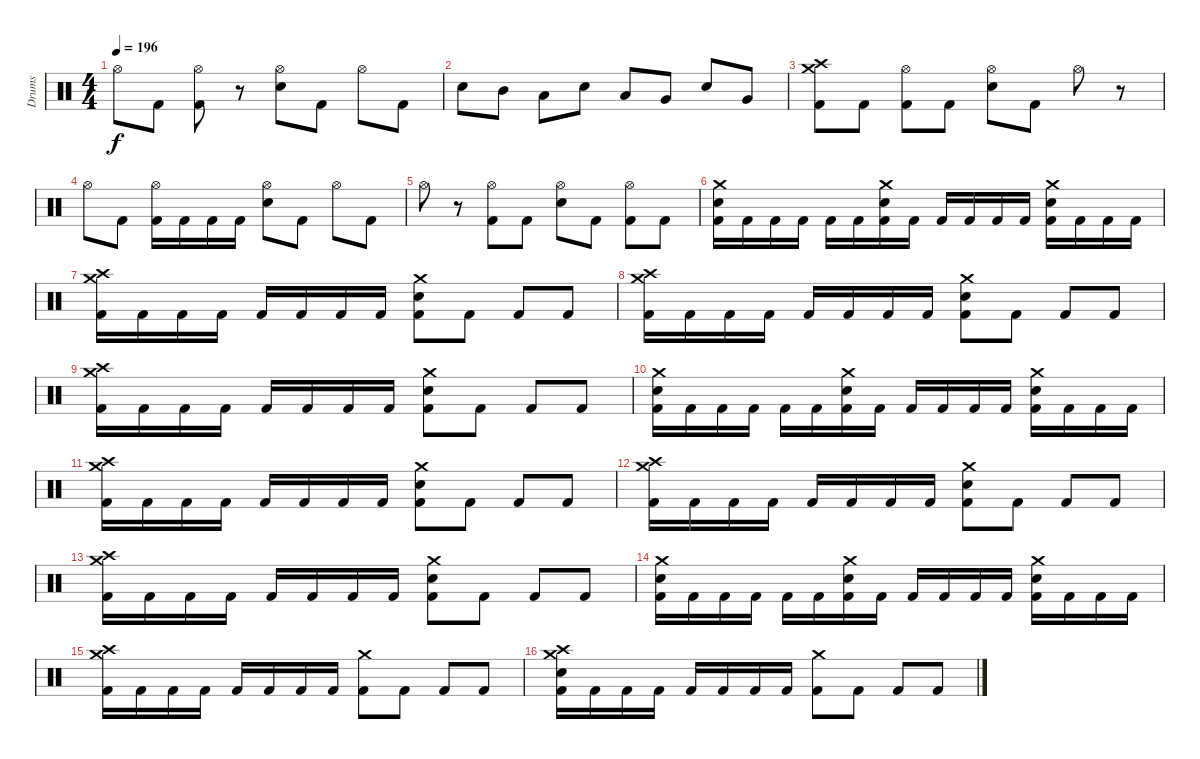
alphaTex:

\track ("Drums" "Drums") {instrument percussion}
\staff {score}
\articulation defaults
\ts (4 4)
\tempo 196
\clef neutral
\ks c "Hi-Hat (open)".8{dy f} "Kick (hit) 2".8
("Hi-Hat (open)" "Kick (hit) 2").8 r.8 ("Hi-Hat (open)" "Snare (hit) 2").8 "Kick (hit) 2".8 "Hi-Hat (open)".8 "Kick (hit) 2".8 |
"Snare (hit) 2".8 "Mid Tom (hit)".8 "Low Tom (hit)".8 "Snare (hit) 2".8 "Low Tom (hit)".8 "Very Low Tom (hit)".8 "Snare (hit) 2".8 "Very Low Tom (hit)".8 |
("Crash high (hit)" "Crash medium (hit)" "Kick (hit) 2").8 "Kick (hit) 2".8 ("Hi-Hat (open)" "Kick (hit) 2").8 "Kick (hit) 2".8 ("Hi-Hat (open)" "Snare (hit) 2").8 "Kick (hit) 2".8 "Hi-Hat (open)".8 r.8 |
"Hi-Hat (open)".8 "Kick (hit) 2".8 ("Hi-Hat (open)" "Kick (hit) 2").16 "Kick (hit) 2".16 "Kick (hit) 2".16 "Kick (hit) 2".16 ("Hi-Hat (open)" "Snare (hit) 2").8 "Kick (hit) 2".8 "Hi-Hat (open)".8 "Kick (hit) 2".8 |
"Hi-Hat (open)".8 r.8 ("Hi-Hat (open)" "Kick (hit) 2").8 "Kick (hit) 2".8 ("Hi-Hat (open)" "Snare (hit) 2").8 "Kick (hit) 2".8 ("Hi-Hat (open)" "Kick (hit) 2").8 "Kick (hit) 2".8 |
("Crash medium (hit)" "Snare (hit) 2" "Kick (hit) 2").16 "Kick (hit) 2".16 "Kick (hit) 2".16 "Kick (hit) 2".16 "Kick (hit) 2".16 "Kick (hit) 2".16 ("Crash medium (hit)" "Snare (hit) 2" "Kick (hit) 2").16 "Kick (hit) 2".16 "Kick (hit) 2".16 "Kick (hit) 2".16 "Kick (hit) 2".16 "Kick (hit) 2".16 ("Crash medium (hit)" "Snare (hit) 2" "Kick (hit) 2").16 "Kick (hit) 2".16 "Kick (hit) 2".16 "Kick (hit) 2".16 |
("Crash high (hit)" "Crash medium (hit)" "Kick (hit) 2").16 "Kick (hit) 2".16 "Kick (hit) 2".16 "Kick (hit) 2".16 "Kick (hit) 2".16 "Kick (hit) 2".16 "Kick (hit) 2".16 "Kick (hit) 2".16 ("Crash medium (hit)" "Snare (hit) 2" "Kick (hit) 2").8 "Kick (hit) 2".8 "Kick (hit) 2".8 "Kick (hit) 2".8 |
("Crash high (hit)" "Crash medium (hit)" "Kick (hit) 2").16 "Kick (hit) 2".16 "Kick (hit) 2".16 "Kick (hit) 2".16 "Kick (hit) 2".16 "Kick (hit) 2".16 "Kick (hit) 2".16 "Kick (hit) 2".16 ("Crash medium (hit)" "Snare (hit) 2" "Kick (hit) 2").8 "Kick (hit) 2".8 "Kick (hit) 2".8 "Kick (hit) 2".8 |
("Crash high (hit)" "Crash medium (hit)" "Kick (hit) 2").16 "Kick (hit) 2".16 "Kick (hit) 2".16 "Kick (hit) 2".16 "Kick (hit) 2".16 "Kick (hit) 2".16 "Kick (hit) 2".16 "Kick (hit) 2".16 ("Crash medium (hit)" "Snare (hit) 2" "Kick (hit) 2").8 "Kick (hit) 2".8 "Kick (hit) 2".8 "Kick (hit) 2".8 |
("Crash medium (hit)" "Snare (hit) 2" "Kick (hit) 2").16 "Kick (hit) 2".16 "Kick (hit) 2".16 "Kick (hit) 2".16 "Kick (hit) 2".16 "Kick (hit) 2".16 ("Crash medium (hit)" "Snare (hit) 2" "Kick (hit) 2").16 "Kick (hit) 2".16 "Kick (hit) 2".16 "Kick (hit) 2".16 "Kick (hit) 2".16 "Kick (hit) 2".16 ("Crash medium (hit)" "Snare (hit) 2" "Kick (hit) 2").16 "Kick (hit) 2".16 "Kick (hit) 2".16 "Kick (hit) 2".16 |
("Crash high (hit)" "Crash medium (hit)" "Kick (hit) 2").16 "Kick (hit) 2".16 "Kick (hit) 2".16 "Kick (hit) 2".16 "Kick (hit) 2".16 "Kick (hit) 2".16 "Kick (hit) 2".16 "Kick (hit) 2".16 ("Crash medium (hit)" "Snare (hit) 2" "Kick (hit) 2").8 "Kick (hit) 2".8 "Kick (hit) 2".8 "Kick (hit) 2".8 |
("Crash high (hit)" "Crash medium (hit)" "Kick (hit) 2").16 "Kick (hit) 2".16 "Kick (hit) 2".16 "Kick (hit) 2".16 "Kick (hit) 2".16 "Kick (hit) 2".16 "Kick (hit) 2".16 "Kick (hit) 2".16 ("Crash medium (hit)" "Snare (hit) 2" "Kick (hit) 2").8 "Kick (hit) 2".8 "Kick (hit) 2".8 "Kick (hit) 2".8 |
("Crash high (hit)" "Crash medium (hit)" "Kick (hit) 2").16 "Kick (hit) 2".16 "Kick (hit) 2".16 "Kick (hit) 2".16 "Kick (hit) 2".16 "Kick (hit) 2".16 "Kick (hit) 2".16 "Kick (hit) 2".16 ("Crash medium (hit)" "Snare (hit) 2" "Kick (hit) 2").8 "Kick (hit) 2".8 "Kick (hit) 2".8 "Kick (hit) 2".8 |
("Crash medium (hit)" "Snare (hit) 2" "Kick (hit) 2").16 "Kick (hit) 2".16 "Kick (hit) 2".16 "Kick (hit) 2".16 "Kick (hit) 2".16 "Kick (hit) 2".16 ("Crash medium (hit)" "Snare (hit) 2" "Kick (hit) 2").16 "Kick (hit) 2".16 "Kick (hit) 2".16 "Kick (hit) 2".16 "Kick (hit) 2".16 "Kick (hit) 2".16 ("Crash medium (hit)" "Snare (hit) 2" "Kick (hit) 2").16 "Kick (hit) 2".16 "Kick (hit) 2".16 "Kick (hit) 2".16 |
("Crash high (hit)" "Crash medium (hit)" "Kick (hit) 2").16 "Kick (hit) 2".16 "Kick (hit) 2".16 "Kick (hit) 2".16 "Kick (hit) 2".16 "Kick (hit) 2".16 "Kick (hit) 2".16 "Kick (hit) 2".16 ("Crash medium (hit)" "Kick (hit) 2").8 "Kick (hit) 2".8 "Kick (hit) 2".8 "Kick (hit) 2".8 |
("Crash high (hit)" "Crash medium (hit)" "Snare (hit) 2" "Kick (hit) 2").16 "Kick (hit) 2".16 "Kick (hit) 2".16 "Kick (hit) 2".16 "Kick (hit) 2".16 "Kick (hit) 2".16 "Kick (hit) 2".16 "Kick (hit) 2".16 ("Crash medium (hit)" "Kick (hit) 2").8 "Kick (hit) 2".8 "Kick (hit) 2".8 "Kick (hit) 2".8
